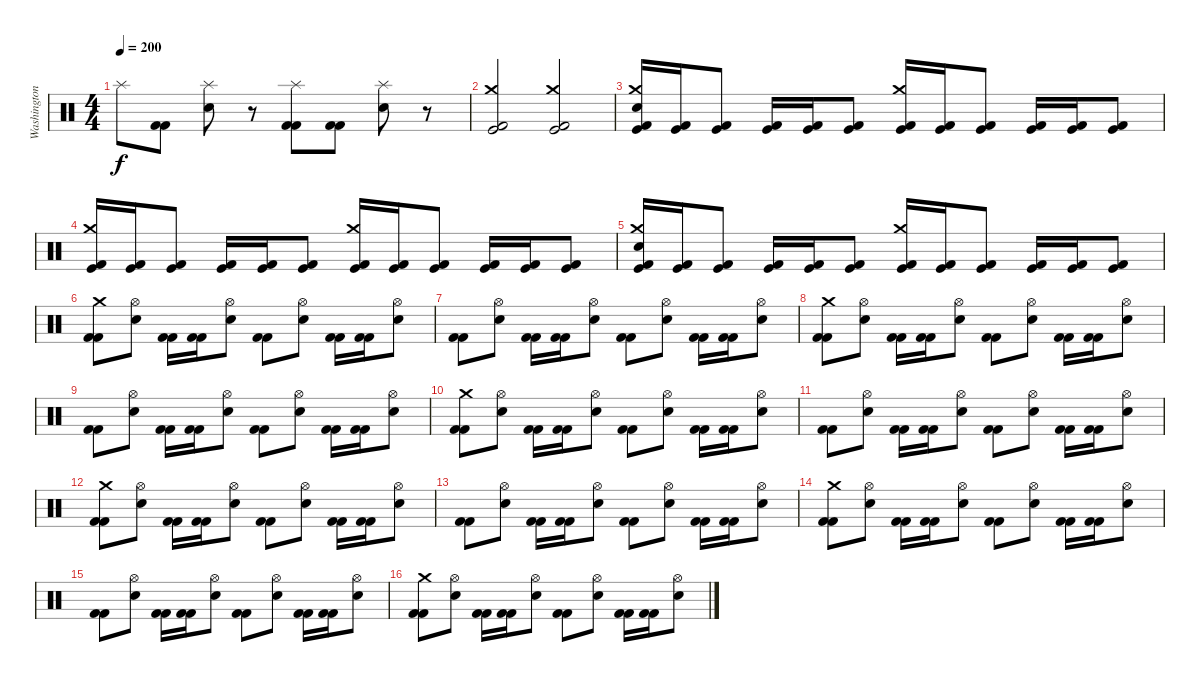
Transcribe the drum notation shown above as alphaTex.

\track ("Washington" "Washington") {solo instrument percussion}
\staff {score}
\articulation defaults
\ts (4 4)
\tempo 200
\clef neutral
\ks c "Splash (hit)".8{dy f}
("Kick (hit) 2" "Kick (hit) 2").8 ("Splash (hit)" "Electric Snare (hit)").8 r.8 ("Splash (hit)" "Kick (hit) 2" "Kick (hit) 2").8 ("Kick (hit) 2" "Kick (hit) 2").8 ("Splash (hit)" "Electric Snare (hit)").8 r.8 |
("Crash medium (hit)" "Kick (hit) 2" "Kick (hit)").2 ("Crash medium (hit)" "Kick (hit) 2" "Kick (hit)").2 |
("Crash medium (hit)" "Electric Snare (hit)" "Kick (hit) 2" "Kick (hit)").16 ("Kick (hit) 2" "Kick (hit)").16 ("Kick (hit) 2" "Kick (hit)").8 ("Kick (hit) 2" "Kick (hit)").16 ("Kick (hit) 2" "Kick (hit)").16 ("Kick (hit) 2" "Kick (hit)").8 ("Crash medium (hit)" "Kick (hit) 2" "Kick (hit)").16 ("Kick (hit) 2" "Kick (hit)").16 ("Kick (hit) 2" "Kick (hit)").8 ("Kick (hit) 2" "Kick (hit)").16 ("Kick (hit) 2" "Kick (hit)").16 ("Kick (hit) 2" "Kick (hit)").8 |
("Crash medium (hit)" "Kick (hit) 2" "Kick (hit)").16 ("Kick (hit) 2" "Kick (hit)").16 ("Kick (hit) 2" "Kick (hit)").8 ("Kick (hit) 2" "Kick (hit)").16 ("Kick (hit) 2" "Kick (hit)").16 ("Kick (hit) 2" "Kick (hit)").8 ("Crash medium (hit)" "Kick (hit) 2" "Kick (hit)").16 ("Kick (hit) 2" "Kick (hit)").16 ("Kick (hit) 2" "Kick (hit)").8 ("Kick (hit) 2" "Kick (hit)").16 ("Kick (hit) 2" "Kick (hit)").16 ("Kick (hit) 2" "Kick (hit)").8 |
("Crash medium (hit)" "Electric Snare (hit)" "Kick (hit) 2" "Kick (hit)").16 ("Kick (hit) 2" "Kick (hit)").16 ("Kick (hit) 2" "Kick (hit)").8 ("Kick (hit) 2" "Kick (hit)").16 ("Kick (hit) 2" "Kick (hit)").16 ("Kick (hit) 2" "Kick (hit)").8 ("Crash medium (hit)" "Kick (hit) 2" "Kick (hit)").16 ("Kick (hit) 2" "Kick (hit)").16 ("Kick (hit) 2" "Kick (hit)").8 ("Kick (hit) 2" "Kick (hit)").16 ("Kick (hit) 2" "Kick (hit)").16 ("Kick (hit) 2" "Kick (hit)").8 |
("Crash medium (hit)" "Kick (hit) 2" "Kick (hit) 2").8 ("Hi-Hat (open)" "Electric Snare (hit)").8 ("Kick (hit) 2" "Kick (hit) 2").16 ("Kick (hit) 2" "Kick (hit) 2").16 ("Hi-Hat (open)" "Electric Snare (hit)").8 ("Kick (hit) 2" "Kick (hit) 2").8 ("Hi-Hat (open)" "Electric Snare (hit)").8 ("Kick (hit) 2" "Kick (hit) 2").16 ("Kick (hit) 2" "Kick (hit) 2").16 ("Hi-Hat (open)" "Electric Snare (hit)").8 |
("Kick (hit) 2" "Kick (hit) 2").8 ("Hi-Hat (open)" "Electric Snare (hit)").8 ("Kick (hit) 2" "Kick (hit) 2").16 ("Kick (hit) 2" "Kick (hit) 2").16 ("Hi-Hat (open)" "Electric Snare (hit)").8 ("Kick (hit) 2" "Kick (hit) 2").8 ("Hi-Hat (open)" "Electric Snare (hit)").8 ("Kick (hit) 2" "Kick (hit) 2").16 ("Kick (hit) 2" "Kick (hit) 2").16 ("Hi-Hat (open)" "Electric Snare (hit)").8 |
("Crash medium (hit)" "Kick (hit) 2" "Kick (hit) 2").8 ("Hi-Hat (open)" "Electric Snare (hit)").8 ("Kick (hit) 2" "Kick (hit) 2").16 ("Kick (hit) 2" "Kick (hit) 2").16 ("Hi-Hat (open)" "Electric Snare (hit)").8 ("Kick (hit) 2" "Kick (hit) 2").8 ("Hi-Hat (open)" "Electric Snare (hit)").8 ("Kick (hit) 2" "Kick (hit) 2").16 ("Kick (hit) 2" "Kick (hit) 2").16 ("Hi-Hat (open)" "Electric Snare (hit)").8 |
("Kick (hit) 2" "Kick (hit) 2").8 ("Hi-Hat (open)" "Electric Snare (hit)").8 ("Kick (hit) 2" "Kick (hit) 2").16 ("Kick (hit) 2" "Kick (hit) 2").16 ("Hi-Hat (open)" "Electric Snare (hit)").8 ("Kick (hit) 2" "Kick (hit) 2").8 ("Hi-Hat (open)" "Electric Snare (hit)").8 ("Kick (hit) 2" "Kick (hit) 2").16 ("Kick (hit) 2" "Kick (hit) 2").16 ("Hi-Hat (open)" "Electric Snare (hit)").8 |
("Crash medium (hit)" "Kick (hit) 2" "Kick (hit) 2").8 ("Hi-Hat (open)" "Electric Snare (hit)").8 ("Kick (hit) 2" "Kick (hit) 2").16 ("Kick (hit) 2" "Kick (hit) 2").16 ("Hi-Hat (open)" "Electric Snare (hit)").8 ("Kick (hit) 2" "Kick (hit) 2").8 ("Hi-Hat (open)" "Electric Snare (hit)").8 ("Kick (hit) 2" "Kick (hit) 2").16 ("Kick (hit) 2" "Kick (hit) 2").16 ("Hi-Hat (open)" "Electric Snare (hit)").8 |
("Kick (hit) 2" "Kick (hit) 2").8 ("Hi-Hat (open)" "Electric Snare (hit)").8 ("Kick (hit) 2" "Kick (hit) 2").16 ("Kick (hit) 2" "Kick (hit) 2").16 ("Hi-Hat (open)" "Electric Snare (hit)").8 ("Kick (hit) 2" "Kick (hit) 2").8 ("Hi-Hat (open)" "Electric Snare (hit)").8 ("Kick (hit) 2" "Kick (hit) 2").16 ("Kick (hit) 2" "Kick (hit) 2").16 ("Hi-Hat (open)" "Electric Snare (hit)").8 |
("Crash medium (hit)" "Kick (hit) 2" "Kick (hit) 2").8 ("Hi-Hat (open)" "Electric Snare (hit)").8 ("Kick (hit) 2" "Kick (hit) 2").16 ("Kick (hit) 2" "Kick (hit) 2").16 ("Hi-Hat (open)" "Electric Snare (hit)").8 ("Kick (hit) 2" "Kick (hit) 2").8 ("Hi-Hat (open)" "Electric Snare (hit)").8 ("Kick (hit) 2" "Kick (hit) 2").16 ("Kick (hit) 2" "Kick (hit) 2").16 ("Hi-Hat (open)" "Electric Snare (hit)").8 |
("Kick (hit) 2" "Kick (hit) 2").8 ("Hi-Hat (open)" "Electric Snare (hit)").8 ("Kick (hit) 2" "Kick (hit) 2").16 ("Kick (hit) 2" "Kick (hit) 2").16 ("Hi-Hat (open)" "Electric Snare (hit)").8 ("Kick (hit) 2" "Kick (hit) 2").8 ("Hi-Hat (open)" "Electric Snare (hit)").8 ("Kick (hit) 2" "Kick (hit) 2").16 ("Kick (hit) 2" "Kick (hit) 2").16 ("Hi-Hat (open)" "Electric Snare (hit)").8 |
("Crash medium (hit)" "Kick (hit) 2" "Kick (hit) 2").8 ("Hi-Hat (open)" "Electric Snare (hit)").8 ("Kick (hit) 2" "Kick (hit) 2").16 ("Kick (hit) 2" "Kick (hit) 2").16 ("Hi-Hat (open)" "Electric Snare (hit)").8 ("Kick (hit) 2" "Kick (hit) 2").8 ("Hi-Hat (open)" "Electric Snare (hit)").8 ("Kick (hit) 2" "Kick (hit) 2").16 ("Kick (hit) 2" "Kick (hit) 2").16 ("Hi-Hat (open)" "Electric Snare (hit)").8 |
("Kick (hit) 2" "Kick (hit) 2").8 ("Hi-Hat (open)" "Electric Snare (hit)").8 ("Kick (hit) 2" "Kick (hit) 2").16 ("Kick (hit) 2" "Kick (hit) 2").16 ("Hi-Hat (open)" "Electric Snare (hit)").8 ("Kick (hit) 2" "Kick (hit) 2").8 ("Hi-Hat (open)" "Electric Snare (hit)").8 ("Kick (hit) 2" "Kick (hit) 2").16 ("Kick (hit) 2" "Kick (hit) 2").16 ("Hi-Hat (open)" "Electric Snare (hit)").8 |
("Crash medium (hit)" "Kick (hit) 2" "Kick (hit) 2").8 ("Hi-Hat (open)" "Electric Snare (hit)").8 ("Kick (hit) 2" "Kick (hit) 2").16 ("Kick (hit) 2" "Kick (hit) 2").16 ("Hi-Hat (open)" "Electric Snare (hit)").8 ("Kick (hit) 2" "Kick (hit) 2").8 ("Hi-Hat (open)" "Electric Snare (hit)").8 ("Kick (hit) 2" "Kick (hit) 2").16 ("Kick (hit) 2" "Kick (hit) 2").16 ("Hi-Hat (open)" "Electric Snare (hit)").8
